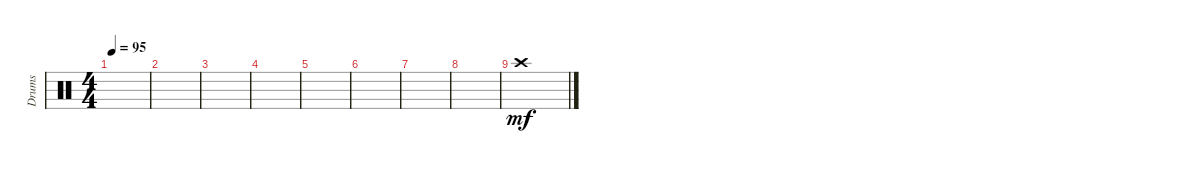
\track ("Drums" "Drums") {instrument percussion}
\staff {score}
\articulation defaults
\ts (4 4)
\tempo 95
\clef neutral
\ks c
|
|
|
|
|
|
|
|
"Crash high (hit)".1{dy mf}
